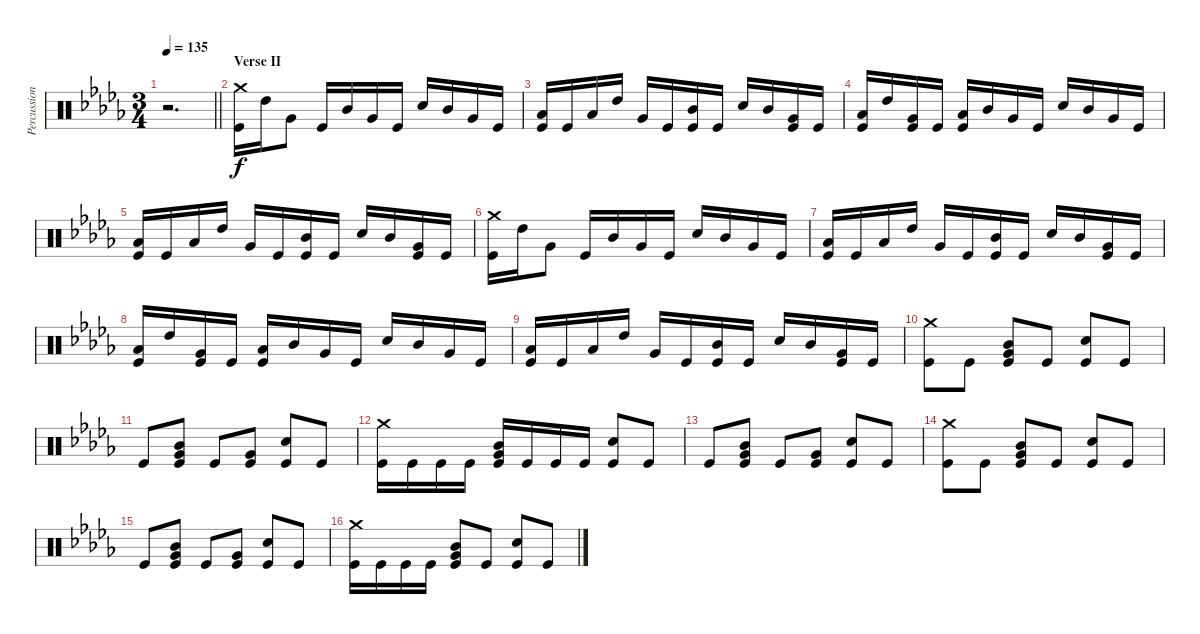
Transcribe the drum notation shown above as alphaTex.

\track ("Percussion" "Percussion") {instrument percussion}
\staff {score}
\articulation defaults
\ts (3 4)
\tempo 135
\clef neutral
\barLineRight lightlight
\ks db
r.2{d dy f} |
\section ("" "Verse II")
("Crash medium (hit)" "Kick (hit)").16 "High Tom (hit)".16 "Very Low Tom (hit)".8 "Kick (hit)".16 "Mid Tom (hit)".16 "Very Low Tom (hit)".16 "Kick (hit)".16 "Electric Snare (hit)".16 "Mid Tom (hit)".16 "Very Low Tom (hit)".16 "Kick (hit)".16 |
("Low Tom (hit)" "Kick (hit)").16 "Kick (hit)".16 "Low Tom (hit)".16 "High Tom (hit)".16 "Very Low Tom (hit)".16 "Kick (hit)".16 ("Mid Tom (hit)" "Kick (hit)").16 "Kick (hit)".16 "Electric Snare (hit)".16 "Mid Tom (hit)".16 ("Very Low Tom (hit)" "Kick (hit)").16 "Kick (hit)".16 |
("Low Tom (hit)" "Kick (hit)").16 "High Tom (hit)".16 ("Very Low Tom (hit)" "Kick (hit)").16 "Kick (hit)".16 ("Low Tom (hit)" "Kick (hit)").16 "Mid Tom (hit)".16 "Very Low Tom (hit)".16 "Kick (hit)".16 "Electric Snare (hit)".16 "Mid Tom (hit)".16 "Very Low Tom (hit)".16 "Kick (hit)".16 |
("Low Tom (hit)" "Kick (hit)").16 "Kick (hit)".16 "Low Tom (hit)".16 "High Tom (hit)".16 "Very Low Tom (hit)".16 "Kick (hit)".16 ("Mid Tom (hit)" "Kick (hit)").16 "Kick (hit)".16 "Electric Snare (hit)".16 "Mid Tom (hit)".16 ("Very Low Tom (hit)" "Kick (hit)").16 "Kick (hit)".16 |
("Crash medium (hit)" "Kick (hit)").16 "High Tom (hit)".16 "Very Low Tom (hit)".8 "Kick (hit)".16 "Mid Tom (hit)".16 "Very Low Tom (hit)".16 "Kick (hit)".16 "Electric Snare (hit)".16 "Mid Tom (hit)".16 "Very Low Tom (hit)".16 "Kick (hit)".16 |
("Low Tom (hit)" "Kick (hit)").16 "Kick (hit)".16 "Low Tom (hit)".16 "High Tom (hit)".16 "Very Low Tom (hit)".16 "Kick (hit)".16 ("Mid Tom (hit)" "Kick (hit)").16 "Kick (hit)".16 "Electric Snare (hit)".16 "Mid Tom (hit)".16 ("Very Low Tom (hit)" "Kick (hit)").16 "Kick (hit)".16 |
("Low Tom (hit)" "Kick (hit)").16 "High Tom (hit)".16 ("Very Low Tom (hit)" "Kick (hit)").16 "Kick (hit)".16 ("Low Tom (hit)" "Kick (hit)").16 "Mid Tom (hit)".16 "Very Low Tom (hit)".16 "Kick (hit)".16 "Electric Snare (hit)".16 "Mid Tom (hit)".16 "Very Low Tom (hit)".16 "Kick (hit)".16 |
("Low Tom (hit)" "Kick (hit)").16 "Kick (hit)".16 "Low Tom (hit)".16 "High Tom (hit)".16 "Very Low Tom (hit)".16 "Kick (hit)".16 ("Mid Tom (hit)" "Kick (hit)").16 "Kick (hit)".16 "Electric Snare (hit)".16 "Mid Tom (hit)".16 ("Very Low Tom (hit)" "Kick (hit)").16 "Kick (hit)".16 |
("Crash medium (hit)" "Kick (hit)").8 "Kick (hit)".8 ("Mid Tom (hit)" "Very Low Tom (hit)" "Kick (hit)").8 "Kick (hit)".8 ("Electric Snare (hit)" "Kick (hit)").8 "Kick (hit)".8 |
"Kick (hit)".8 ("Mid Tom (hit)" "Very Low Tom (hit)" "Kick (hit)").8 "Kick (hit)".8 ("Very Low Tom (hit)" "Kick (hit)").8 ("Electric Snare (hit)" "Kick (hit)").8 "Kick (hit)".8 |
("Crash medium (hit)" "Kick (hit)").16 "Kick (hit)".16 "Kick (hit)".16 "Kick (hit)".16 ("Mid Tom (hit)" "Very Low Tom (hit)" "Kick (hit)").16 "Kick (hit)".16 "Kick (hit)".16 "Kick (hit)".16 ("Electric Snare (hit)" "Kick (hit)").8 "Kick (hit)".8 |
"Kick (hit)".8 ("Mid Tom (hit)" "Very Low Tom (hit)" "Kick (hit)").8 "Kick (hit)".8 ("Very Low Tom (hit)" "Kick (hit)").8 ("Electric Snare (hit)" "Kick (hit)").8 "Kick (hit)".8 |
("Crash medium (hit)" "Kick (hit)").8 "Kick (hit)".8 ("Mid Tom (hit)" "Very Low Tom (hit)" "Kick (hit)").8 "Kick (hit)".8 ("Electric Snare (hit)" "Kick (hit)").8 "Kick (hit)".8 |
"Kick (hit)".8 ("Mid Tom (hit)" "Very Low Tom (hit)" "Kick (hit)").8 "Kick (hit)".8 ("Very Low Tom (hit)" "Kick (hit)").8 ("Electric Snare (hit)" "Kick (hit)").8 "Kick (hit)".8 |
("Crash medium (hit)" "Kick (hit)").16 "Kick (hit)".16 "Kick (hit)".16 "Kick (hit)".16 ("Mid Tom (hit)" "Very Low Tom (hit)" "Kick (hit)").8 "Kick (hit)".8 ("Electric Snare (hit)" "Kick (hit)").8 "Kick (hit)".8
